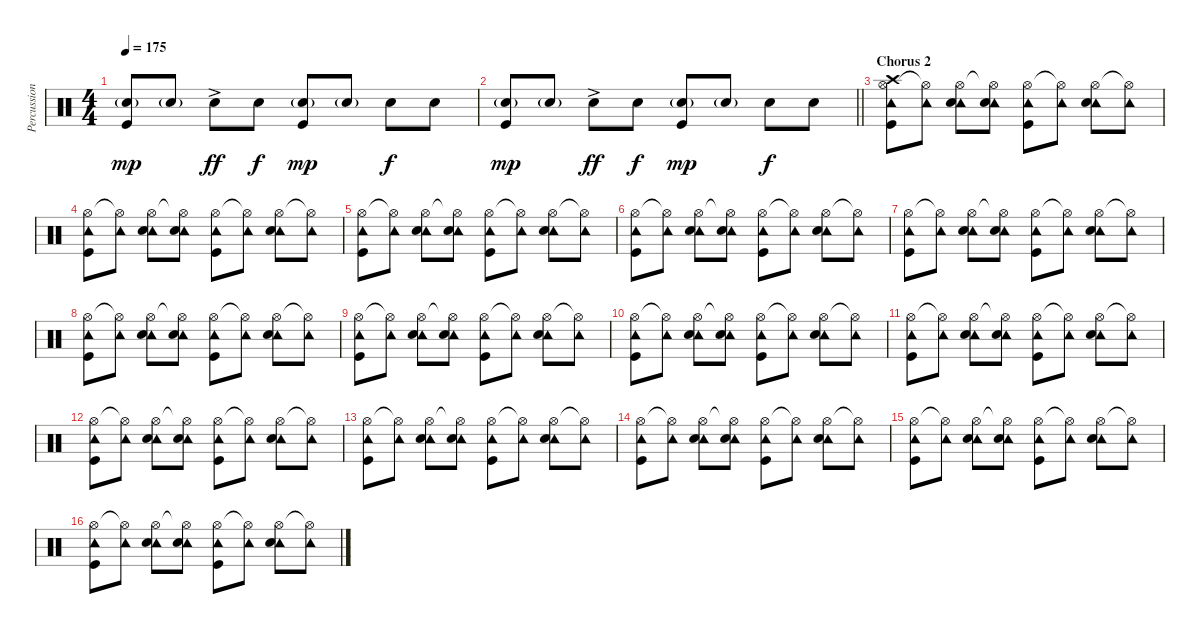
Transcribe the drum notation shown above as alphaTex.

\track ("Percussion" "Percussion") {instrument percussion}
\staff {score}
\articulation defaults
\ts (4 4)
\tempo 175
\clef neutral
\ks c
("Snare (hit) 2"{g} "Kick (hit)").8{dy mp} "Snare (hit) 2"{g}.8 "Snare (hit) 2"{ac}.8{dy ff} "Snare (hit) 2".8{dy f} ("Snare (hit) 2"{g} "Kick (hit)").8{dy mp} "Snare (hit) 2"{g}.8 "Snare (hit) 2".8{dy f} "Snare (hit) 2".8 |
\barLineRight lightlight
("Snare (hit) 2"{g} "Kick (hit)").8{dy mp} "Snare (hit) 2"{g}.8 "Snare (hit) 2"{ac}.8{dy ff} "Snare (hit) 2".8{dy f} ("Snare (hit) 2"{g} "Kick (hit)").8{dy mp} "Snare (hit) 2"{g}.8 "Snare (hit) 2".8{dy f} "Snare (hit) 2".8 |
\section ("" "Chorus 2")
("Hi-Hat (open)" "Tambourine (hit)" "Crash high (hit)" "Kick (hit)").8 ("Hi-Hat (open)"{t} "Tambourine (hit)").8 ("Hi-Hat (open)" "Tambourine (hit)" "Snare (hit) 2").8 ("Hi-Hat (open)"{t} "Tambourine (hit)" "Snare (hit) 2").8 ("Hi-Hat (open)" "Tambourine (hit)" "Kick (hit)").8 ("Hi-Hat (open)"{t} "Tambourine (hit)").8 ("Hi-Hat (open)" "Tambourine (hit)" "Snare (hit) 2").8 ("Hi-Hat (open)"{t} "Tambourine (hit)").8 |
("Hi-Hat (open)" "Tambourine (hit)" "Kick (hit)").8 ("Hi-Hat (open)"{t} "Tambourine (hit)").8 ("Hi-Hat (open)" "Tambourine (hit)" "Snare (hit) 2").8 ("Hi-Hat (open)"{t} "Tambourine (hit)" "Snare (hit) 2").8 ("Hi-Hat (open)" "Tambourine (hit)" "Kick (hit)").8 ("Hi-Hat (open)"{t} "Tambourine (hit)").8 ("Hi-Hat (open)" "Tambourine (hit)" "Snare (hit) 2").8 ("Hi-Hat (open)"{t} "Tambourine (hit)").8 |
("Hi-Hat (open)" "Tambourine (hit)" "Kick (hit)").8 ("Hi-Hat (open)"{t} "Tambourine (hit)").8 ("Hi-Hat (open)" "Tambourine (hit)" "Snare (hit) 2").8 ("Hi-Hat (open)"{t} "Tambourine (hit)" "Snare (hit) 2").8 ("Hi-Hat (open)" "Tambourine (hit)" "Kick (hit)").8 ("Hi-Hat (open)"{t} "Tambourine (hit)").8 ("Hi-Hat (open)" "Tambourine (hit)" "Snare (hit) 2").8 ("Hi-Hat (open)"{t} "Tambourine (hit)").8 |
("Hi-Hat (open)" "Tambourine (hit)" "Kick (hit)").8 ("Hi-Hat (open)"{t} "Tambourine (hit)").8 ("Hi-Hat (open)" "Tambourine (hit)" "Snare (hit) 2").8 ("Hi-Hat (open)"{t} "Tambourine (hit)" "Snare (hit) 2").8 ("Hi-Hat (open)" "Tambourine (hit)" "Kick (hit)").8 ("Hi-Hat (open)"{t} "Tambourine (hit)").8 ("Hi-Hat (open)" "Tambourine (hit)" "Snare (hit) 2").8 ("Hi-Hat (open)"{t} "Tambourine (hit)").8 |
("Hi-Hat (open)" "Tambourine (hit)" "Kick (hit)").8 ("Hi-Hat (open)"{t} "Tambourine (hit)").8 ("Hi-Hat (open)" "Tambourine (hit)" "Snare (hit) 2").8 ("Hi-Hat (open)"{t} "Tambourine (hit)" "Snare (hit) 2").8 ("Hi-Hat (open)" "Tambourine (hit)" "Kick (hit)").8 ("Hi-Hat (open)"{t} "Tambourine (hit)").8 ("Hi-Hat (open)" "Tambourine (hit)" "Snare (hit) 2").8 ("Hi-Hat (open)"{t} "Tambourine (hit)").8 |
("Hi-Hat (open)" "Tambourine (hit)" "Kick (hit)").8 ("Hi-Hat (open)"{t} "Tambourine (hit)").8 ("Hi-Hat (open)" "Tambourine (hit)" "Snare (hit) 2").8 ("Hi-Hat (open)"{t} "Tambourine (hit)" "Snare (hit) 2").8 ("Hi-Hat (open)" "Tambourine (hit)" "Kick (hit)").8 ("Hi-Hat (open)"{t} "Tambourine (hit)").8 ("Hi-Hat (open)" "Tambourine (hit)" "Snare (hit) 2").8 ("Hi-Hat (open)"{t} "Tambourine (hit)").8 |
("Hi-Hat (open)" "Tambourine (hit)" "Kick (hit)").8 ("Hi-Hat (open)"{t} "Tambourine (hit)").8 ("Hi-Hat (open)" "Tambourine (hit)" "Snare (hit) 2").8 ("Hi-Hat (open)"{t} "Tambourine (hit)" "Snare (hit) 2").8 ("Hi-Hat (open)" "Tambourine (hit)" "Kick (hit)").8 ("Hi-Hat (open)"{t} "Tambourine (hit)").8 ("Hi-Hat (open)" "Tambourine (hit)" "Snare (hit) 2").8 ("Hi-Hat (open)"{t} "Tambourine (hit)").8 |
("Hi-Hat (open)" "Tambourine (hit)" "Kick (hit)").8 ("Hi-Hat (open)"{t} "Tambourine (hit)").8 ("Hi-Hat (open)" "Tambourine (hit)" "Snare (hit) 2").8 ("Hi-Hat (open)"{t} "Tambourine (hit)" "Snare (hit) 2").8 ("Hi-Hat (open)" "Tambourine (hit)" "Kick (hit)").8 ("Hi-Hat (open)"{t} "Tambourine (hit)").8 ("Hi-Hat (open)" "Tambourine (hit)" "Snare (hit) 2").8 ("Hi-Hat (open)"{t} "Tambourine (hit)").8 |
("Hi-Hat (open)" "Tambourine (hit)" "Kick (hit)").8 ("Hi-Hat (open)"{t} "Tambourine (hit)").8 ("Hi-Hat (open)" "Tambourine (hit)" "Snare (hit) 2").8 ("Hi-Hat (open)"{t} "Tambourine (hit)" "Snare (hit) 2").8 ("Hi-Hat (open)" "Tambourine (hit)" "Kick (hit)").8 ("Hi-Hat (open)"{t} "Tambourine (hit)").8 ("Hi-Hat (open)" "Tambourine (hit)" "Snare (hit) 2").8 ("Hi-Hat (open)"{t} "Tambourine (hit)").8 |
("Hi-Hat (open)" "Tambourine (hit)" "Kick (hit)").8 ("Hi-Hat (open)"{t} "Tambourine (hit)").8 ("Hi-Hat (open)" "Tambourine (hit)" "Snare (hit) 2").8 ("Hi-Hat (open)"{t} "Tambourine (hit)" "Snare (hit) 2").8 ("Hi-Hat (open)" "Tambourine (hit)" "Kick (hit)").8 ("Hi-Hat (open)"{t} "Tambourine (hit)").8 ("Hi-Hat (open)" "Tambourine (hit)" "Snare (hit) 2").8 ("Hi-Hat (open)"{t} "Tambourine (hit)").8 |
("Hi-Hat (open)" "Tambourine (hit)" "Kick (hit)").8 ("Hi-Hat (open)"{t} "Tambourine (hit)").8 ("Hi-Hat (open)" "Tambourine (hit)" "Snare (hit) 2").8 ("Hi-Hat (open)"{t} "Tambourine (hit)" "Snare (hit) 2").8 ("Hi-Hat (open)" "Tambourine (hit)" "Kick (hit)").8 ("Hi-Hat (open)"{t} "Tambourine (hit)").8 ("Hi-Hat (open)" "Tambourine (hit)" "Snare (hit) 2").8 ("Hi-Hat (open)"{t} "Tambourine (hit)").8 |
("Hi-Hat (open)" "Tambourine (hit)" "Kick (hit)").8 ("Hi-Hat (open)"{t} "Tambourine (hit)").8 ("Hi-Hat (open)" "Tambourine (hit)" "Snare (hit) 2").8 ("Hi-Hat (open)"{t} "Tambourine (hit)" "Snare (hit) 2").8 ("Hi-Hat (open)" "Tambourine (hit)" "Kick (hit)").8 ("Hi-Hat (open)"{t} "Tambourine (hit)").8 ("Hi-Hat (open)" "Tambourine (hit)" "Snare (hit) 2").8 ("Hi-Hat (open)"{t} "Tambourine (hit)").8 |
("Hi-Hat (open)" "Tambourine (hit)" "Kick (hit)").8 ("Hi-Hat (open)"{t} "Tambourine (hit)").8 ("Hi-Hat (open)" "Tambourine (hit)" "Snare (hit) 2").8 ("Hi-Hat (open)"{t} "Tambourine (hit)" "Snare (hit) 2").8 ("Hi-Hat (open)" "Tambourine (hit)" "Kick (hit)").8 ("Hi-Hat (open)"{t} "Tambourine (hit)").8 ("Hi-Hat (open)" "Tambourine (hit)" "Snare (hit) 2").8 ("Hi-Hat (open)"{t} "Tambourine (hit)").8 |
("Hi-Hat (open)" "Tambourine (hit)" "Kick (hit)").8 ("Hi-Hat (open)"{t} "Tambourine (hit)").8 ("Hi-Hat (open)" "Tambourine (hit)" "Snare (hit) 2").8 ("Hi-Hat (open)"{t} "Tambourine (hit)" "Snare (hit) 2").8 ("Hi-Hat (open)" "Tambourine (hit)" "Kick (hit)").8 ("Hi-Hat (open)"{t} "Tambourine (hit)").8 ("Hi-Hat (open)" "Tambourine (hit)" "Snare (hit) 2").8 ("Hi-Hat (open)"{t} "Tambourine (hit)").8
